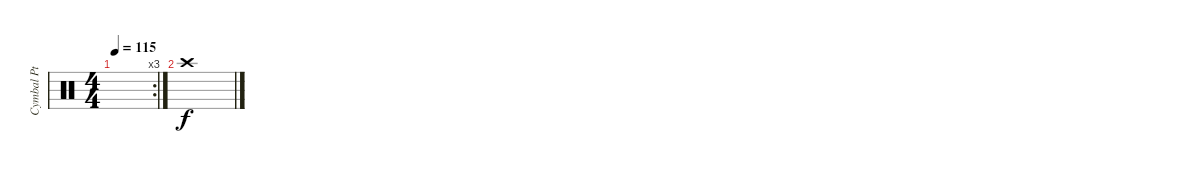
\track ("Cymbal Pt 2" "Cymbal Pt ") {instrument percussion}
\staff {score}
\articulation defaults
\rc 3
\ts (4 4)
\tempo 115
\clef neutral
\ks c
|
"Crash high (hit)".1
